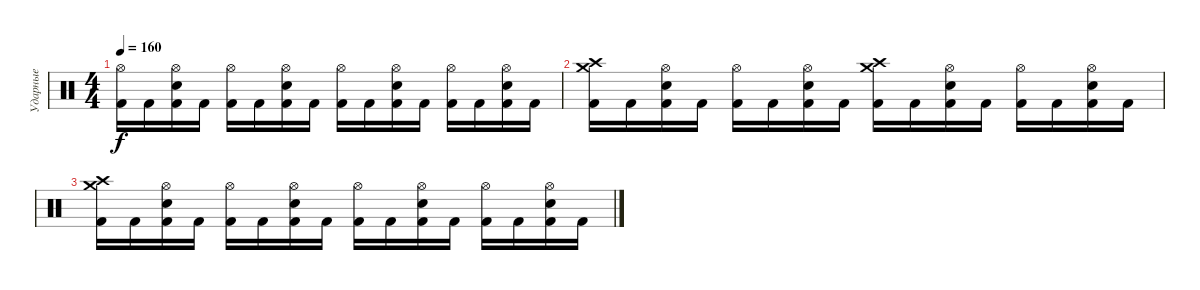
\track ("Ударные" "Ударные") {instrument percussion}
\staff {score}
\articulation defaults
\ts (4 4)
\tempo 160
\clef neutral
\ks c
("Kick (hit) 2" "Hi-Hat (open)").16{dy f} "Kick (hit) 2".16 ("Kick (hit) 2" "Electric Snare (hit)" "Hi-Hat (open)").16 "Kick (hit) 2".16 ("Kick (hit) 2" "Hi-Hat (open)").16 "Kick (hit) 2".16 ("Kick (hit) 2" "Electric Snare (hit)" "Hi-Hat (open)").16 "Kick (hit) 2".16 ("Kick (hit) 2" "Hi-Hat (open)").16 "Kick (hit) 2".16 ("Kick (hit) 2" "Electric Snare (hit)" "Hi-Hat (open)").16 "Kick (hit) 2".16 ("Kick (hit) 2" "Hi-Hat (open)").16 "Kick (hit) 2".16 ("Kick (hit) 2" "Electric Snare (hit)" "Hi-Hat (open)").16 "Kick (hit) 2".16 |
("Kick (hit) 2" "Crash high (hit)" "Crash medium (hit)").16 "Kick (hit) 2".16 ("Kick (hit) 2" "Electric Snare (hit)" "Hi-Hat (open)").16 "Kick (hit) 2".16 ("Kick (hit) 2" "Hi-Hat (open)").16 "Kick (hit) 2".16 ("Kick (hit) 2" "Electric Snare (hit)" "Hi-Hat (open)").16 "Kick (hit) 2".16 ("Kick (hit) 2" "Crash high (hit)" "Crash medium (hit)").16 "Kick (hit) 2".16 ("Kick (hit) 2" "Electric Snare (hit)" "Hi-Hat (open)").16 "Kick (hit) 2".16 ("Kick (hit) 2" "Hi-Hat (open)").16 "Kick (hit) 2".16 ("Kick (hit) 2" "Electric Snare (hit)" "Hi-Hat (open)").16 "Kick (hit) 2".16 |
("Kick (hit) 2" "Crash high (hit)" "Crash medium (hit)").16 "Kick (hit) 2".16 ("Kick (hit) 2" "Electric Snare (hit)" "Hi-Hat (open)").16 "Kick (hit) 2".16 ("Kick (hit) 2" "Hi-Hat (open)").16 "Kick (hit) 2".16 ("Kick (hit) 2" "Electric Snare (hit)" "Hi-Hat (open)").16 "Kick (hit) 2".16 ("Kick (hit) 2" "Hi-Hat (open)").16 "Kick (hit) 2".16 ("Kick (hit) 2" "Electric Snare (hit)" "Hi-Hat (open)").16 "Kick (hit) 2".16 ("Kick (hit) 2" "Hi-Hat (open)").16 "Kick (hit) 2".16 ("Kick (hit) 2" "Electric Snare (hit)" "Hi-Hat (open)").16 "Kick (hit) 2".16
